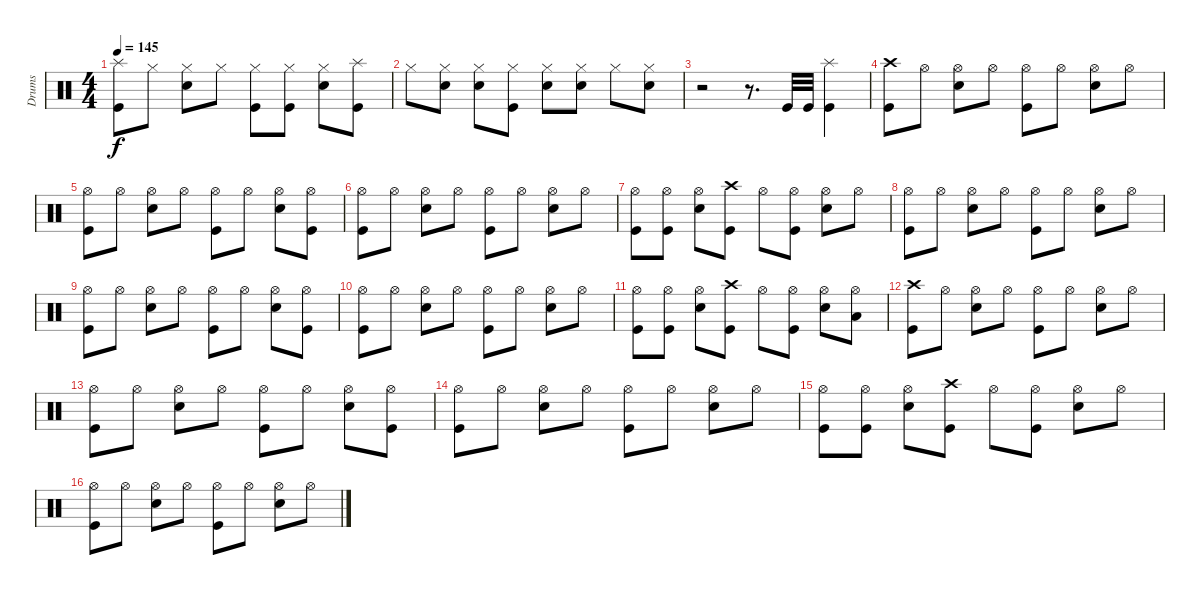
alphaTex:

\track ("Drums" "Drums") {instrument percussion}
\staff {score}
\articulation defaults
\ts (4 4)
\tempo 145
\clef neutral
\ks c
("Splash (hit)" "Kick (hit)").8{dy f} "Hi-Hat (closed)".8 ("Hi-Hat (closed)" "Snare (hit) 2").8 "Hi-Hat (closed)".8 ("Hi-Hat (closed)" "Kick (hit)").8 ("Hi-Hat (closed)" "Kick (hit)").8 ("Hi-Hat (closed)" "Snare (hit) 2").8 ("Splash (hit)" "Kick (hit)").8 |
"Hi-Hat (closed)".8 ("Hi-Hat (closed)" "Snare (hit) 2").8 ("Hi-Hat (closed)" "Snare (hit) 2").8 ("Hi-Hat (closed)" "Kick (hit)").8 ("Hi-Hat (closed)" "Snare (hit) 2").8 ("Hi-Hat (closed)" "Snare (hit) 2").8 "Hi-Hat (closed)".8 ("Hi-Hat (closed)" "Snare (hit) 2").8 |
r.2 r.8{d} "Kick (hit)".32 "Kick (hit)".32 ("Splash (hit)" "Kick (hit)").4 |
("Crash high (hit)" "Kick (hit)").8 "Hi-Hat (open)".8 ("Hi-Hat (open)" "Snare (hit) 2").8 "Hi-Hat (open)".8 ("Hi-Hat (open)" "Kick (hit)").8 "Hi-Hat (open)".8 ("Hi-Hat (open)" "Snare (hit) 2").8 "Hi-Hat (open)".8 |
("Hi-Hat (open)" "Kick (hit)").8 "Hi-Hat (open)".8 ("Hi-Hat (open)" "Snare (hit) 2").8 "Hi-Hat (open)".8 ("Hi-Hat (open)" "Kick (hit)").8 "Hi-Hat (open)".8 ("Hi-Hat (open)" "Snare (hit) 2").8 ("Hi-Hat (open)" "Kick (hit)").8 |
("Hi-Hat (open)" "Kick (hit)").8 "Hi-Hat (open)".8 ("Hi-Hat (open)" "Snare (hit) 2").8 "Hi-Hat (open)".8 ("Hi-Hat (open)" "Kick (hit)").8 "Hi-Hat (open)".8 ("Hi-Hat (open)" "Snare (hit) 2").8 "Hi-Hat (open)".8 |
("Hi-Hat (open)" "Kick (hit)").8 ("Hi-Hat (open)" "Kick (hit)").8 ("Hi-Hat (open)" "Snare (hit) 2").8 ("Crash high (hit)" "Kick (hit)").8 "Hi-Hat (open)".8 ("Hi-Hat (open)" "Kick (hit)").8 ("Hi-Hat (open)" "Snare (hit) 2").8 "Hi-Hat (open)".8 |
("Hi-Hat (open)" "Kick (hit)").8 "Hi-Hat (open)".8 ("Hi-Hat (open)" "Snare (hit) 2").8 "Hi-Hat (open)".8 ("Hi-Hat (open)" "Kick (hit)").8 "Hi-Hat (open)".8 ("Hi-Hat (open)" "Snare (hit) 2").8 "Hi-Hat (open)".8 |
("Hi-Hat (open)" "Kick (hit)").8 "Hi-Hat (open)".8 ("Hi-Hat (open)" "Snare (hit) 2").8 "Hi-Hat (open)".8 ("Hi-Hat (open)" "Kick (hit)").8 "Hi-Hat (open)".8 ("Hi-Hat (open)" "Snare (hit) 2").8 ("Hi-Hat (open)" "Kick (hit)").8 |
("Hi-Hat (open)" "Kick (hit)").8 "Hi-Hat (open)".8 ("Hi-Hat (open)" "Snare (hit) 2").8 "Hi-Hat (open)".8 ("Hi-Hat (open)" "Kick (hit)").8 "Hi-Hat (open)".8 ("Hi-Hat (open)" "Snare (hit) 2").8 "Hi-Hat (open)".8 |
("Hi-Hat (open)" "Kick (hit)").8 ("Hi-Hat (open)" "Kick (hit)").8 ("Hi-Hat (open)" "Snare (hit) 2").8 ("Crash high (hit)" "Kick (hit)").8 "Hi-Hat (open)".8 ("Hi-Hat (open)" "Kick (hit)").8 ("Hi-Hat (open)" "Snare (hit) 2").8 ("Hi-Hat (open)" "Low Tom (hit)").8 |
("Crash high (hit)" "Kick (hit)").8 "Hi-Hat (open)".8 ("Hi-Hat (open)" "Snare (hit) 2").8 "Hi-Hat (open)".8 ("Hi-Hat (open)" "Kick (hit)").8 "Hi-Hat (open)".8 ("Hi-Hat (open)" "Snare (hit) 2").8 "Hi-Hat (open)".8 |
("Hi-Hat (open)" "Kick (hit)").8 "Hi-Hat (open)".8 ("Hi-Hat (open)" "Snare (hit) 2").8 "Hi-Hat (open)".8 ("Hi-Hat (open)" "Kick (hit)").8 "Hi-Hat (open)".8 ("Hi-Hat (open)" "Snare (hit) 2").8 ("Hi-Hat (open)" "Kick (hit)").8 |
("Hi-Hat (open)" "Kick (hit)").8 "Hi-Hat (open)".8 ("Hi-Hat (open)" "Snare (hit) 2").8 "Hi-Hat (open)".8 ("Hi-Hat (open)" "Kick (hit)").8 "Hi-Hat (open)".8 ("Hi-Hat (open)" "Snare (hit) 2").8 "Hi-Hat (open)".8 |
("Hi-Hat (open)" "Kick (hit)").8 ("Hi-Hat (open)" "Kick (hit)").8 ("Hi-Hat (open)" "Snare (hit) 2").8 ("Crash high (hit)" "Kick (hit)").8 "Hi-Hat (open)".8 ("Hi-Hat (open)" "Kick (hit)").8 ("Hi-Hat (open)" "Snare (hit) 2").8 "Hi-Hat (open)".8 |
("Hi-Hat (open)" "Kick (hit)").8 "Hi-Hat (open)".8 ("Hi-Hat (open)" "Snare (hit) 2").8 "Hi-Hat (open)".8 ("Hi-Hat (open)" "Kick (hit)").8 "Hi-Hat (open)".8 ("Hi-Hat (open)" "Snare (hit) 2").8 "Hi-Hat (open)".8
